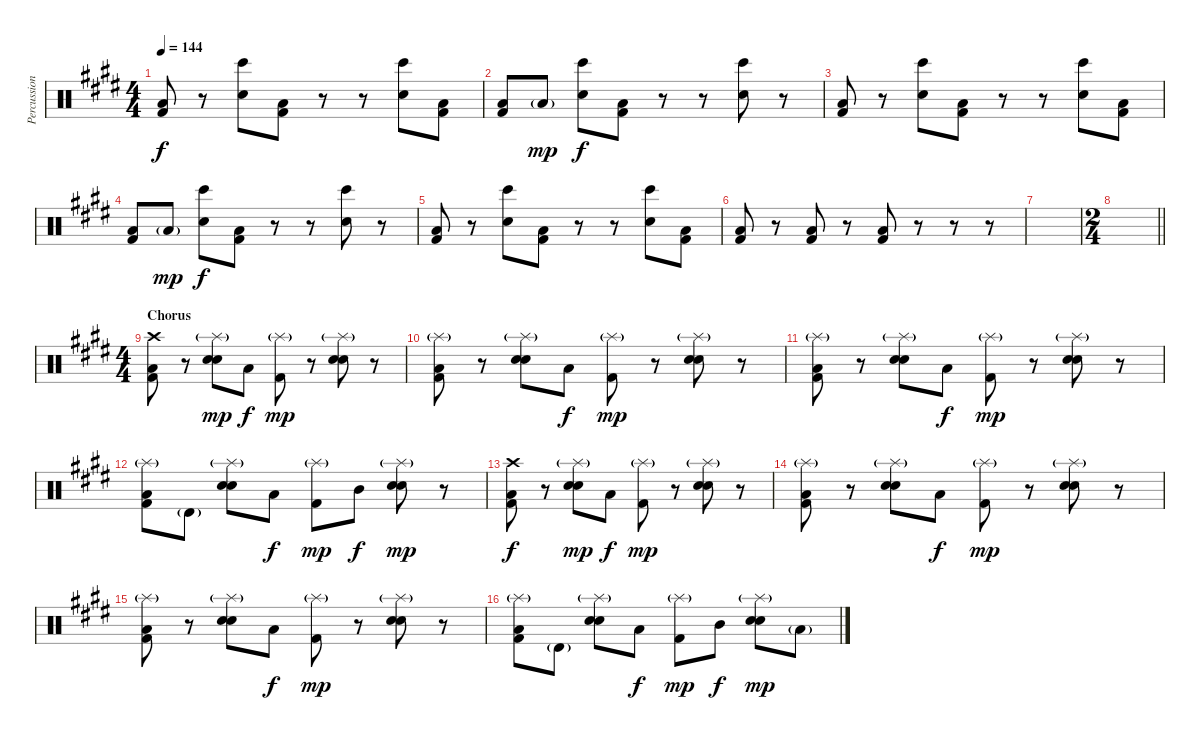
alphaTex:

\track ("Percussion" "Percussion") {instrument percussion}
\staff {score}
\articulation defaults
\ts (4 4)
\tempo 144
\clef neutral
\ks e
("Low Floor Tom (hit)" "Kick (hit) 2").8{dy f} r.8 ("Bongo High (hit)" "Hand Clap (hit)").8 ("Low Floor Tom (hit)" "Kick (hit) 2").8 r.8 r.8 ("Bongo High (hit)" "Hand Clap (hit)").8 ("Low Floor Tom (hit)" "Kick (hit) 2").8 |
("Low Floor Tom (hit)" "Kick (hit) 2").8 "Low Tom (hit)"{g}.8{dy mp} ("Bongo High (hit)" "Hand Clap (hit)").8{dy f} ("Low Floor Tom (hit)" "Kick (hit) 2").8 r.8 r.8 ("Bongo High (hit)" "Hand Clap (hit)").8 r.8 |
("Low Floor Tom (hit)" "Kick (hit) 2").8 r.8 ("Bongo High (hit)" "Hand Clap (hit)").8 ("Low Floor Tom (hit)" "Kick (hit) 2").8 r.8 r.8 ("Bongo High (hit)" "Hand Clap (hit)").8 ("Low Floor Tom (hit)" "Kick (hit) 2").8 |
("Low Floor Tom (hit)" "Kick (hit) 2").8 "Low Tom (hit)"{g}.8{dy mp} ("Bongo High (hit)" "Hand Clap (hit)").8{dy f} ("Low Floor Tom (hit)" "Kick (hit) 2").8 r.8 r.8 ("Bongo High (hit)" "Hand Clap (hit)").8 r.8 |
("Low Floor Tom (hit)" "Kick (hit) 2").8 r.8 ("Bongo High (hit)" "Hand Clap (hit)").8 ("Low Floor Tom (hit)" "Kick (hit) 2").8 r.8 r.8 ("Bongo High (hit)" "Hand Clap (hit)").8 ("Low Floor Tom (hit)" "Kick (hit) 2").8 |
("Low Floor Tom (hit)" "Kick (hit) 2").8 r.8 ("Low Floor Tom (hit)" "Kick (hit) 2").8 r.8 ("Low Floor Tom (hit)" "Kick (hit) 2").8 r.8 r.8 r.8 |
|
\ts (2 4)
\barLineRight lightlight
|
\ts (4 4)
\section ("" "Chorus")
("Crash high (hit)" "Low Floor Tom (hit)" "Kick (hit) 2").8 r.8 ("Splash (hit)"{g} "Hand Clap (hit)" "Electric Snare (hit)").8{dy mp} "Low Floor Tom (hit)".8{dy f} ("Splash (hit)"{g} "Kick (hit) 2").8{dy mp} r.8 ("Splash (hit)"{g} "Hand Clap (hit)" "Electric Snare (hit)").8 r.8 |
("Splash (hit)"{g} "Low Floor Tom (hit)" "Kick (hit) 2").8 r.8 ("Splash (hit)"{g} "Hand Clap (hit)" "Electric Snare (hit)").8 "Low Floor Tom (hit)".8{dy f} ("Splash (hit)"{g} "Kick (hit) 2").8{dy mp} r.8 ("Splash (hit)"{g} "Hand Clap (hit)" "Electric Snare (hit)").8 r.8 |
("Splash (hit)"{g} "Low Floor Tom (hit)" "Kick (hit) 2").8 r.8 ("Splash (hit)"{g} "Hand Clap (hit)" "Electric Snare (hit)").8 "Low Floor Tom (hit)".8{dy f} ("Splash (hit)"{g} "Kick (hit) 2").8{dy mp} r.8 ("Splash (hit)"{g} "Hand Clap (hit)" "Electric Snare (hit)").8 r.8 |
("Splash (hit)"{g} "Low Floor Tom (hit)" "Kick (hit) 2").8 "Timbale high (hit)"{g}.8 ("Splash (hit)"{g} "Hand Clap (hit)" "Electric Snare (hit)").8 "Low Floor Tom (hit)".8{dy f} ("Splash (hit)"{g} "Kick (hit) 2").8{dy mp} "Mid Tom (hit)".8{dy f} ("Splash (hit)"{g} "Hand Clap (hit)" "Electric Snare (hit)").8{dy mp} r.8 |
("Crash high (hit)" "Low Floor Tom (hit)" "Kick (hit) 2").8{dy f} r.8 ("Splash (hit)"{g} "Hand Clap (hit)" "Electric Snare (hit)").8{dy mp} "Low Floor Tom (hit)".8{dy f} ("Splash (hit)"{g} "Kick (hit) 2").8{dy mp} r.8 ("Splash (hit)"{g} "Hand Clap (hit)" "Electric Snare (hit)").8 r.8 |
("Splash (hit)"{g} "Low Floor Tom (hit)" "Kick (hit) 2").8 r.8 ("Splash (hit)"{g} "Hand Clap (hit)" "Electric Snare (hit)").8 "Low Floor Tom (hit)".8{dy f} ("Splash (hit)"{g} "Kick (hit) 2").8{dy mp} r.8 ("Splash (hit)"{g} "Hand Clap (hit)" "Electric Snare (hit)").8 r.8 |
("Splash (hit)"{g} "Low Floor Tom (hit)" "Kick (hit) 2").8 r.8 ("Splash (hit)"{g} "Hand Clap (hit)" "Electric Snare (hit)").8 "Low Floor Tom (hit)".8{dy f} ("Splash (hit)"{g} "Kick (hit) 2").8{dy mp} r.8 ("Splash (hit)"{g} "Hand Clap (hit)" "Electric Snare (hit)").8 r.8 |
("Splash (hit)"{g} "Low Floor Tom (hit)" "Kick (hit) 2").8 "Timbale high (hit)"{g}.8 ("Splash (hit)"{g} "Hand Clap (hit)" "Electric Snare (hit)").8 "Low Floor Tom (hit)".8{dy f} ("Splash (hit)"{g} "Kick (hit) 2").8{dy mp} "Mid Tom (hit)".8{dy f} ("Splash (hit)"{g} "Hand Clap (hit)" "Electric Snare (hit)").8{dy mp} "Low Tom (hit)"{g}.8
